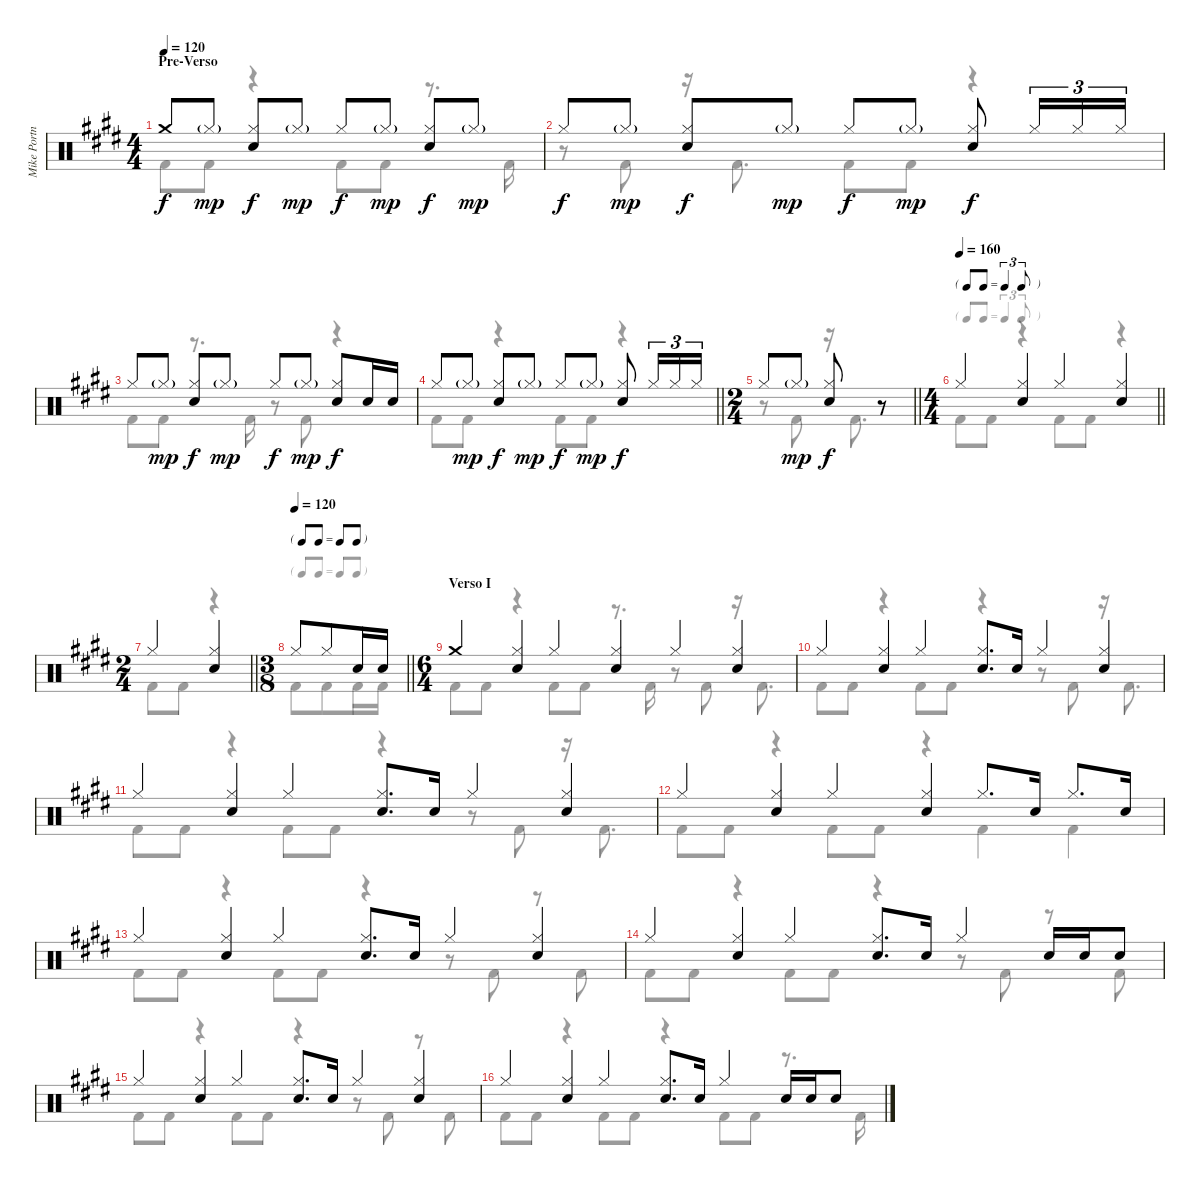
\track ("Mike Portnoy" "Mike Portn") {instrument percussion}
\staff {score}
\articulation defaults
\voice
\ts (4 4)
\section ("" "Pre-Verso")
\tempo 120
\clef neutral
\ks e "Crash medium (hit)".8{dy f} "Hi-Hat (closed)"{g}.8{dy mp}
("Hi-Hat (closed)" "Snare (hit) 2").8{dy f} "Hi-Hat (closed)"{g}.8{dy mp} "Hi-Hat (closed)".8{dy f} "Hi-Hat (closed)"{g}.8{dy mp} ("Hi-Hat (closed)" "Snare (hit) 2").8{dy f} "Hi-Hat (closed)"{g}.8{dy mp} |
"Hi-Hat (closed)".8{dy f} "Hi-Hat (closed)"{g}.8{dy mp} ("Hi-Hat (closed)" "Snare (hit) 2").8{dy f} "Hi-Hat (closed)"{g}.8{dy mp} "Hi-Hat (closed)".8{dy f} "Hi-Hat (closed)"{g}.8{dy mp} ("Hi-Hat (closed)" "Snare (hit) 2").8{dy f} "Hi-Hat (closed)".16{tu (3 2)} "Hi-Hat (closed)".16{tu (3 2)} "Hi-Hat (closed)".16{tu (3 2)} |
"Hi-Hat (closed)".8 "Hi-Hat (closed)"{g}.8{dy mp} ("Hi-Hat (closed)" "Snare (hit) 2").8{dy f} "Hi-Hat (closed)"{g}.8{dy mp} "Hi-Hat (closed)".8{dy f} "Hi-Hat (closed)"{g}.8{dy mp} ("Hi-Hat (closed)" "Snare (hit) 2").8{dy f} "Snare (hit) 2".16 "Snare (hit) 2".16 |
\barLineRight lightlight "Hi-Hat (closed)".8 "Hi-Hat (closed)"{g}.8{dy mp}
("Hi-Hat (closed)" "Snare (hit) 2").8{dy f} "Hi-Hat (closed)"{g}.8{dy mp} "Hi-Hat (closed)".8{dy f} "Hi-Hat (closed)"{g}.8{dy mp} ("Hi-Hat (closed)" "Snare (hit) 2").8{dy f} "Hi-Hat (closed)".16{tu (3 2)} "Hi-Hat (closed)".16{tu (3 2)} "Hi-Hat (closed)".16{tu (3 2)} |
\ts (2 4)
\barLineRight lightlight "Hi-Hat (closed)".8 "Hi-Hat (closed)"{g}.8{dy mp}
("Hi-Hat (closed)" "Snare (hit) 2").8{dy f} r.8 |
\ts (4 4)
\tf triplet8th
\tempo 160
\barLineRight lightlight "Hi-Hat (closed)".4
("Hi-Hat (closed)" "Snare (hit) 2").4 "Hi-Hat (closed)".4 ("Hi-Hat (closed)" "Snare (hit) 2").4 |
\ts (2 4)
\barLineRight lightlight "Hi-Hat (closed)".4
("Hi-Hat (closed)" "Snare (hit) 2").4 |
\ts (3 8)
\tf none
\tempo 120
\barLineRight lightlight "Hi-Hat (closed)".8 "Hi-Hat (closed)".8 "Snare (hit) 2".16 "Snare (hit) 2".16
|
\ts (6 4)
\section ("" "Verso I")
"Crash medium (hit)".4 ("Hi-Hat (closed)" "Snare (hit) 2").4 "Hi-Hat (closed)".4 ("Hi-Hat (closed)" "Snare (hit) 2").4 "Hi-Hat (closed)".4 ("Hi-Hat (closed)" "Snare (hit) 2").4 |
"Hi-Hat (closed)".4 ("Hi-Hat (closed)" "Snare (hit) 2").4 "Hi-Hat (closed)".4 ("Hi-Hat (closed)" "Snare (hit) 2").8{d} "Snare (hit) 2".16 "Hi-Hat (closed)".4 ("Hi-Hat (closed)" "Snare (hit) 2").4 |
"Hi-Hat (closed)".4 ("Hi-Hat (closed)" "Snare (hit) 2").4 "Hi-Hat (closed)".4 ("Hi-Hat (closed)" "Snare (hit) 2").8{d} "Snare (hit) 2".16 "Hi-Hat (closed)".4 ("Hi-Hat (closed)" "Snare (hit) 2").4 |
"Hi-Hat (closed)".4 ("Hi-Hat (closed)" "Snare (hit) 2").4 "Hi-Hat (closed)".4 ("Hi-Hat (closed)" "Snare (hit) 2").4 "Hi-Hat (closed)".8{d} "Snare (hit) 2".16 "Hi-Hat (closed)".8{d} "Snare (hit) 2".16 |
"Hi-Hat (closed)".4 ("Hi-Hat (closed)" "Snare (hit) 2").4 "Hi-Hat (closed)".4 ("Hi-Hat (closed)" "Snare (hit) 2").8{d} "Snare (hit) 2".16 "Hi-Hat (closed)".4 ("Hi-Hat (closed)" "Snare (hit) 2").4 |
"Hi-Hat (closed)".4 ("Hi-Hat (closed)" "Snare (hit) 2").4 "Hi-Hat (closed)".4 ("Hi-Hat (closed)" "Snare (hit) 2").8{d} "Snare (hit) 2".16 "Hi-Hat (closed)".4 "Snare (hit) 2".16 "Snare (hit) 2".16 "Snare (hit) 2".8 |
"Hi-Hat (closed)".4 ("Hi-Hat (closed)" "Snare (hit) 2").4 "Hi-Hat (closed)".4 ("Hi-Hat (closed)" "Snare (hit) 2").8{d} "Snare (hit) 2".16 "Hi-Hat (closed)".4 ("Hi-Hat (closed)" "Snare (hit) 2").4 |
"Hi-Hat (closed)".4 ("Hi-Hat (closed)" "Snare (hit) 2").4 "Hi-Hat (closed)".4 ("Hi-Hat (closed)" "Snare (hit) 2").8{d} "Snare (hit) 2".16 "Hi-Hat (closed)".4 "Snare (hit) 2".16 "Snare (hit) 2".16 "Snare (hit) 2".8
\voice
\clef neutral
\ottava regular
\simile none
\ks e "Kick (hit) 2".8{dy f} "Kick (hit) 2".8
r.4 "Kick (hit) 2".8 "Kick (hit) 2".8 r.8{d} "Kick (hit) 2".16 |
r.8 "Kick (hit) 2".8 r.16 "Kick (hit) 2".8{d} "Kick (hit) 2".8 "Kick (hit) 2".8 r.4 |
"Kick (hit) 2".8 "Kick (hit) 2".8 r.8{d} "Kick (hit) 2".16 r.8 "Kick (hit) 2".8 r.4 |
\barLineRight lightlight "Kick (hit) 2".8 "Kick (hit) 2".8
r.4 "Kick (hit) 2".8 "Kick (hit) 2".8 r.4 |
\barLineRight lightlight
r.8 "Kick (hit) 2".8 r.16 "Kick (hit) 2".8{d} |
\barLineRight lightlight "Kick (hit) 2".8 "Kick (hit) 2".8
r.4 "Kick (hit) 2".8 "Kick (hit) 2".8 r.4 |
\barLineRight lightlight "Kick (hit) 2".8 "Kick (hit) 2".8
r.4 |
\barLineRight lightlight "Kick (hit) 2".8 "Kick (hit) 2".8 "Kick (hit) 2".16 "Kick (hit) 2".16
|
"Kick (hit) 2".8 "Kick (hit) 2".8 r.4 "Kick (hit) 2".8 "Kick (hit) 2".8 r.8{d} "Kick (hit) 2".16 r.8 "Kick (hit) 2".8 r.16 "Kick (hit) 2".8{d} |
"Kick (hit) 2".8 "Kick (hit) 2".8 r.4 "Kick (hit) 2".8 "Kick (hit) 2".8 r.4 r.8 "Kick (hit) 2".8 r.16 "Kick (hit) 2".8{d} |
"Kick (hit) 2".8 "Kick (hit) 2".8 r.4 "Kick (hit) 2".8 "Kick (hit) 2".8 r.4 r.8 "Kick (hit) 2".8 r.16 "Kick (hit) 2".8{d} |
"Kick (hit) 2".8 "Kick (hit) 2".8 r.4 "Kick (hit) 2".8 "Kick (hit) 2".8 r.4 "Kick (hit) 2".4 "Kick (hit) 2".4 |
"Kick (hit) 2".8 "Kick (hit) 2".8 r.4 "Kick (hit) 2".8 "Kick (hit) 2".8 r.4 r.8 "Kick (hit) 2".8 r.8 "Kick (hit) 2".8 |
"Kick (hit) 2".8 "Kick (hit) 2".8 r.4 "Kick (hit) 2".8 "Kick (hit) 2".8 r.4 r.8 "Kick (hit) 2".8 r.8 "Kick (hit) 2".8 |
"Kick (hit) 2".8 "Kick (hit) 2".8 r.4 "Kick (hit) 2".8 "Kick (hit) 2".8 r.4 r.8 "Kick (hit) 2".8 r.8 "Kick (hit) 2".8 |
"Kick (hit) 2".8 "Kick (hit) 2".8 r.4 "Kick (hit) 2".8 "Kick (hit) 2".8 r.4 "Kick (hit) 2".8 "Kick (hit) 2".8 r.8{d} "Kick (hit) 2".16
